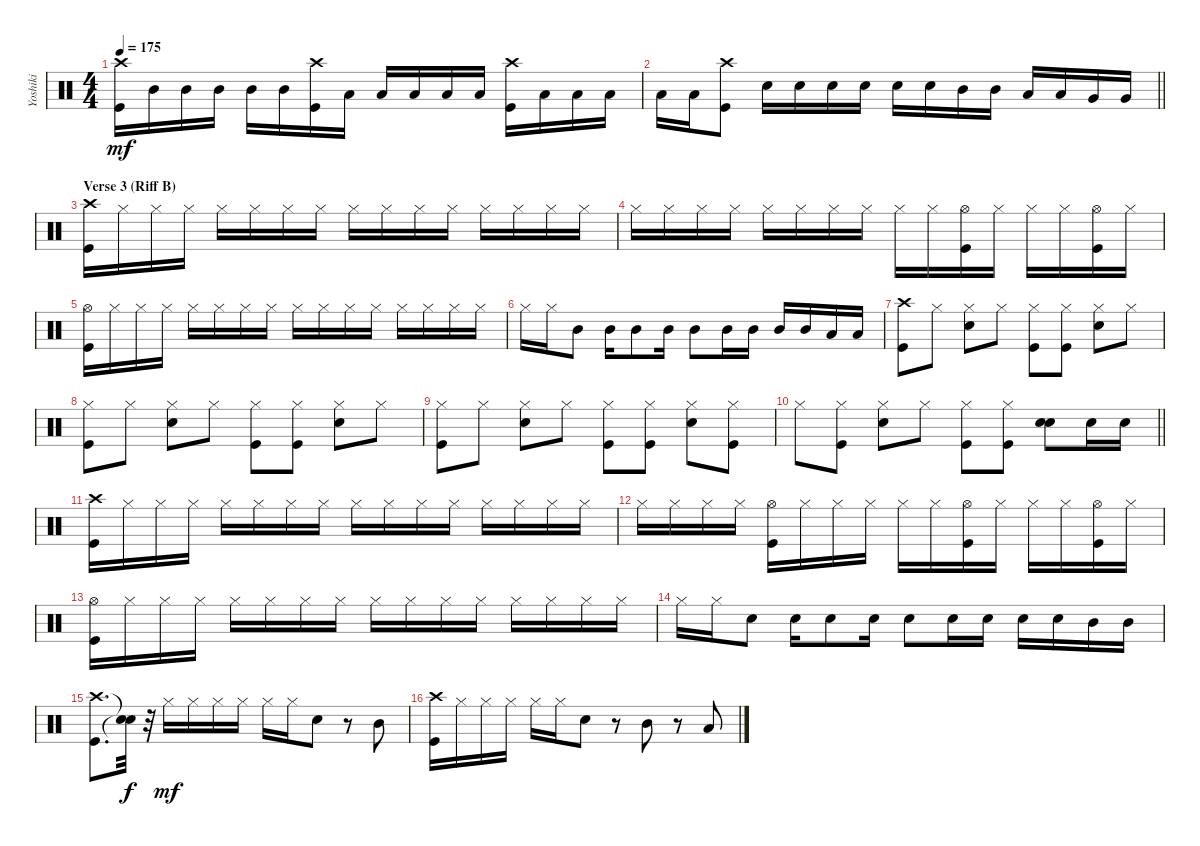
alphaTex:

\track ("Yoshiki" "Yoshiki") {instrument percussion}
\staff {score}
\articulation defaults
\ts (4 4)
\tempo 175
\clef neutral
\ks c
("Crash high (hit)" "Kick (hit)").16{dy mf} "Mid Tom (hit)".16 "Mid Tom (hit)".16 "Mid Tom (hit)".16 "Mid Tom (hit)".16 "Mid Tom (hit)".16 ("Crash high (hit)" "Kick (hit)").16 "Low Tom (hit)".16 "Low Tom (hit)".16 "Low Tom (hit)".16 "Low Tom (hit)".16 "Low Tom (hit)".16 ("Crash high (hit)" "Kick (hit)").16 "Low Tom (hit)".16 "Low Tom (hit)".16 "Low Tom (hit)".16 |
\barLineRight lightlight "Low Tom (hit)".16 "Low Tom (hit)".16
("Crash high (hit)" "Kick (hit)").8 "Snare (hit) 2".16 "Snare (hit) 2".16 "Snare (hit) 2".16 "Snare (hit) 2".16 "Snare (hit) 2".16 "Snare (hit) 2".16 "Mid Tom (hit)".16 "Mid Tom (hit)".16 "Low Tom (hit)".16 "Low Tom (hit)".16 "Very Low Tom (hit)".16 "Very Low Tom (hit)".16 |
\section ("" "Verse 3 (Riff B)")
("Crash high (hit)" "Kick (hit)").16 "Hi-Hat (closed)".16 "Hi-Hat (closed)".16 "Hi-Hat (closed)".16 "Hi-Hat (closed)".16 "Hi-Hat (closed)".16 "Hi-Hat (closed)".16 "Hi-Hat (closed)".16 "Hi-Hat (closed)".16 "Hi-Hat (closed)".16 "Hi-Hat (closed)".16 "Hi-Hat (closed)".16 "Hi-Hat (closed)".16 "Hi-Hat (closed)".16 "Hi-Hat (closed)".16 "Hi-Hat (closed)".16 |
"Hi-Hat (closed)".16 "Hi-Hat (closed)".16 "Hi-Hat (closed)".16 "Hi-Hat (closed)".16 "Hi-Hat (closed)".16 "Hi-Hat (closed)".16 "Hi-Hat (closed)".16 "Hi-Hat (closed)".16 "Hi-Hat (closed)".16 "Hi-Hat (closed)".16 ("Kick (hit)" "Hi-Hat (open)").16 "Hi-Hat (closed)".16 "Hi-Hat (closed)".16 "Hi-Hat (closed)".16 ("Kick (hit)" "Hi-Hat (open)").16 "Hi-Hat (closed)".16 |
("Kick (hit)" "Hi-Hat (open)").16 "Hi-Hat (closed)".16 "Hi-Hat (closed)".16 "Hi-Hat (closed)".16 "Hi-Hat (closed)".16 "Hi-Hat (closed)".16 "Hi-Hat (closed)".16 "Hi-Hat (closed)".16 "Hi-Hat (closed)".16 "Hi-Hat (closed)".16 "Hi-Hat (closed)".16 "Hi-Hat (closed)".16 "Hi-Hat (closed)".16 "Hi-Hat (closed)".16 "Hi-Hat (closed)".16 "Hi-Hat (closed)".16 |
"Hi-Hat (closed)".16 "Hi-Hat (closed)".16 "Mid Tom (hit)".8 "Mid Tom (hit)".16 "Mid Tom (hit)".8 "Mid Tom (hit)".16 "Mid Tom (hit)".8 "Mid Tom (hit)".16 "Mid Tom (hit)".16 "Mid Tom (hit)".16 "Mid Tom (hit)".16 "Low Tom (hit)".16 "Low Tom (hit)".16 |
("Crash high (hit)" "Kick (hit)").8 "Hi-Hat (closed)".8 ("Snare (hit) 2" "Hi-Hat (closed)").8 "Hi-Hat (closed)".8 ("Hi-Hat (closed)" "Kick (hit)").8 ("Hi-Hat (closed)" "Kick (hit)").8 ("Snare (hit) 2" "Hi-Hat (closed)").8 "Hi-Hat (closed)".8 |
("Hi-Hat (closed)" "Kick (hit)").8 "Hi-Hat (closed)".8 ("Snare (hit) 2" "Hi-Hat (closed)").8 "Hi-Hat (closed)".8 ("Hi-Hat (closed)" "Kick (hit)").8 ("Hi-Hat (closed)" "Kick (hit)").8 ("Snare (hit) 2" "Hi-Hat (closed)").8 "Hi-Hat (closed)".8 |
("Hi-Hat (closed)" "Kick (hit)").8 "Hi-Hat (closed)".8 ("Snare (hit) 2" "Hi-Hat (closed)").8 "Hi-Hat (closed)".8 ("Hi-Hat (closed)" "Kick (hit)").8 ("Hi-Hat (closed)" "Kick (hit)").8 ("Snare (hit) 2" "Hi-Hat (closed)").8 ("Hi-Hat (closed)" "Kick (hit)").8 |
\barLineRight lightlight "Hi-Hat (closed)".8
("Hi-Hat (closed)" "Kick (hit)").8 ("Snare (hit) 2" "Hi-Hat (closed)").8 "Hi-Hat (closed)".8 ("Kick (hit)" "Hi-Hat (closed)").8 ("Kick (hit)" "Hi-Hat (closed)").8 ("Snare (hit) 2" "Snare (hit) 2").8 "Snare (hit) 2".16 "Snare (hit) 2".16 |
("Crash high (hit)" "Kick (hit)").16 "Hi-Hat (closed)".16 "Hi-Hat (closed)".16 "Hi-Hat (closed)".16 "Hi-Hat (closed)".16 "Hi-Hat (closed)".16 "Hi-Hat (closed)".16 "Hi-Hat (closed)".16 "Hi-Hat (closed)".16 "Hi-Hat (closed)".16 "Hi-Hat (closed)".16 "Hi-Hat (closed)".16 "Hi-Hat (closed)".16 "Hi-Hat (closed)".16 "Hi-Hat (closed)".16 "Hi-Hat (closed)".16 |
"Hi-Hat (closed)".16 "Hi-Hat (closed)".16 "Hi-Hat (closed)".16 "Hi-Hat (closed)".16 ("Hi-Hat (open)" "Kick (hit)").16 "Hi-Hat (closed)".16 "Hi-Hat (closed)".16 "Hi-Hat (closed)".16 "Hi-Hat (closed)".16 "Hi-Hat (closed)".16 ("Kick (hit)" "Hi-Hat (open)").16 "Hi-Hat (closed)".16 "Hi-Hat (closed)".16 "Hi-Hat (closed)".16 ("Kick (hit)" "Hi-Hat (open)").16 "Hi-Hat (closed)".16 |
("Kick (hit)" "Hi-Hat (open)").16 "Hi-Hat (closed)".16 "Hi-Hat (closed)".16 "Hi-Hat (closed)".16 "Hi-Hat (closed)".16 "Hi-Hat (closed)".16 "Hi-Hat (closed)".16 "Hi-Hat (closed)".16 "Hi-Hat (closed)".16 "Hi-Hat (closed)".16 "Hi-Hat (closed)".16 "Hi-Hat (closed)".16 "Hi-Hat (closed)".16 "Hi-Hat (closed)".16 "Hi-Hat (closed)".16 "Hi-Hat (closed)".16 |
"Hi-Hat (closed)".16 "Hi-Hat (closed)".16 "Snare (hit) 2".8 "Snare (hit) 2".16 "Snare (hit) 2".8 "Snare (hit) 2".16 "Snare (hit) 2".8 "Snare (hit) 2".16 "Snare (hit) 2".16 "Snare (hit) 2".16 "Snare (hit) 2".16 "Mid Tom (hit)".16 "Mid Tom (hit)".16 |
("Crash high (hit)" "Kick (hit)").8{d} ("Snare (hit)"{t} "Snare (hit)"{t}).32{dy f} r.32 "Hi-Hat (closed)".16{dy mf} "Hi-Hat (closed)".16 "Hi-Hat (closed)".16 "Hi-Hat (closed)".16 "Hi-Hat (closed)".16 "Hi-Hat (closed)".16 "Snare (hit) 2".8 r.8 "Mid Tom (hit)".8 |
("Kick (hit)" "Crash high (hit)").16 "Hi-Hat (closed)".16 "Hi-Hat (closed)".16 "Hi-Hat (closed)".16 "Hi-Hat (closed)".16 "Hi-Hat (closed)".16 "Snare (hit) 2".8 r.8 "Mid Tom (hit)".8 r.8 "Low Tom (hit)".8
